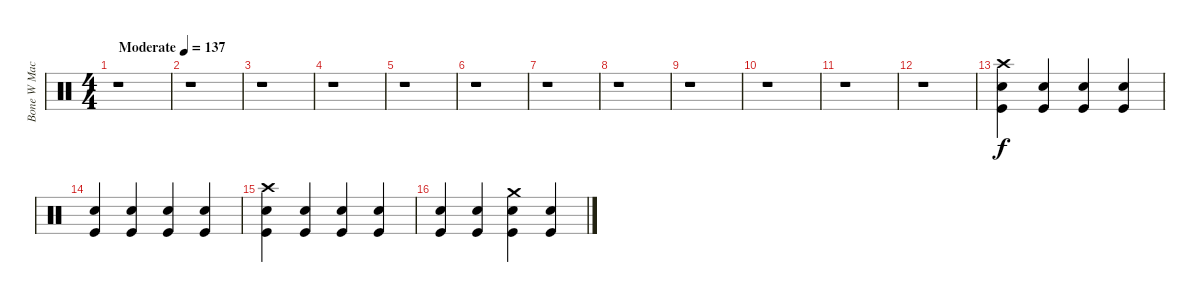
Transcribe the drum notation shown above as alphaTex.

\track ("Bone W Machine Drums" "Bone W Mac") {instrument percussion}
\staff {score}
\articulation defaults
\ts (4 4)
\tempo (137 "Moderate")
\clef neutral
\ks c
r.1{dy f} |
r.1 |
r.1 |
r.1 |
r.1 |
r.1 |
r.1 |
r.1 |
r.1 |
r.1 |
r.1 |
r.1 |
("Crash high (hit)" "Snare (hit) 2" "Kick (hit)").4 ("Snare (hit) 2" "Kick (hit)").4 ("Snare (hit) 2" "Kick (hit)").4 ("Snare (hit) 2" "Kick (hit)").4 |
("Snare (hit) 2" "Kick (hit)").4 ("Snare (hit) 2" "Kick (hit)").4 ("Snare (hit) 2" "Kick (hit)").4 ("Snare (hit) 2" "Kick (hit)").4 |
("Crash high (hit)" "Snare (hit) 2" "Kick (hit)").4 ("Snare (hit) 2" "Kick (hit)").4 ("Snare (hit) 2" "Kick (hit)").4 ("Snare (hit) 2" "Kick (hit)").4 |
("Snare (hit) 2" "Kick (hit)").4 ("Snare (hit) 2" "Kick (hit)").4 ("Crash medium (hit)" "Snare (hit) 2" "Kick (hit)").4 ("Snare (hit) 2" "Kick (hit)").4
